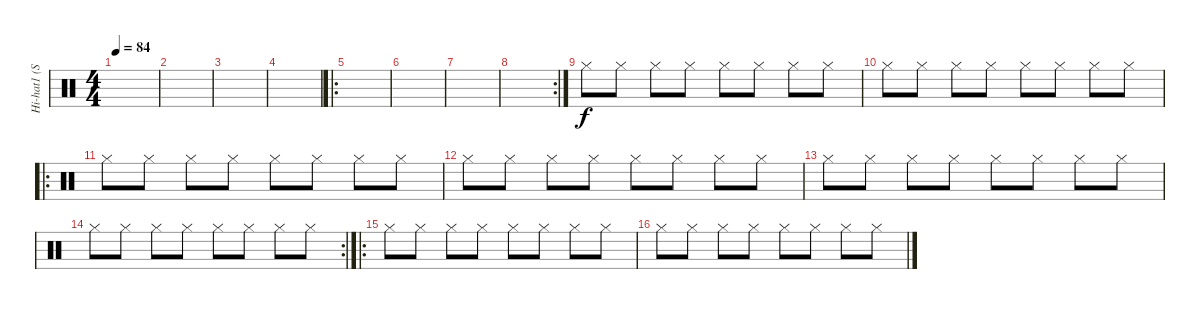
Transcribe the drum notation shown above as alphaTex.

\track ("Hi-hat1 (Silas)" "Hi-hat1 (S") {instrument percussion}
\staff {score}
\articulation defaults
\ts (4 4)
\tempo 84
\clef neutral
\ks c
|
|
|
|
\ro
|
|
|
\rc 2
|
"Hi-Hat (closed)".8 "Hi-Hat (closed)".8 "Hi-Hat (closed)".8 "Hi-Hat (closed)".8 "Hi-Hat (closed)".8 "Hi-Hat (closed)".8 "Hi-Hat (closed)".8 "Hi-Hat (closed)".8 |
"Hi-Hat (closed)".8 "Hi-Hat (closed)".8 "Hi-Hat (closed)".8 "Hi-Hat (closed)".8 "Hi-Hat (closed)".8 "Hi-Hat (closed)".8 "Hi-Hat (closed)".8 "Hi-Hat (closed)".8 |
\ro "Hi-Hat (closed)".8 "Hi-Hat (closed)".8 "Hi-Hat (closed)".8 "Hi-Hat (closed)".8 "Hi-Hat (closed)".8 "Hi-Hat (closed)".8 "Hi-Hat (closed)".8 "Hi-Hat (closed)".8
|
"Hi-Hat (closed)".8 "Hi-Hat (closed)".8 "Hi-Hat (closed)".8 "Hi-Hat (closed)".8 "Hi-Hat (closed)".8 "Hi-Hat (closed)".8 "Hi-Hat (closed)".8 "Hi-Hat (closed)".8 |
"Hi-Hat (closed)".8 "Hi-Hat (closed)".8 "Hi-Hat (closed)".8 "Hi-Hat (closed)".8 "Hi-Hat (closed)".8 "Hi-Hat (closed)".8 "Hi-Hat (closed)".8 "Hi-Hat (closed)".8 |
\rc 2 "Hi-Hat (closed)".8 "Hi-Hat (closed)".8 "Hi-Hat (closed)".8 "Hi-Hat (closed)".8 "Hi-Hat (closed)".8 "Hi-Hat (closed)".8 "Hi-Hat (closed)".8 "Hi-Hat (closed)".8
|
\ro "Hi-Hat (closed)".8 "Hi-Hat (closed)".8 "Hi-Hat (closed)".8 "Hi-Hat (closed)".8 "Hi-Hat (closed)".8 "Hi-Hat (closed)".8 "Hi-Hat (closed)".8 "Hi-Hat (closed)".8
|
"Hi-Hat (closed)".8 "Hi-Hat (closed)".8 "Hi-Hat (closed)".8 "Hi-Hat (closed)".8 "Hi-Hat (closed)".8 "Hi-Hat (closed)".8 "Hi-Hat (closed)".8 "Hi-Hat (closed)".8
